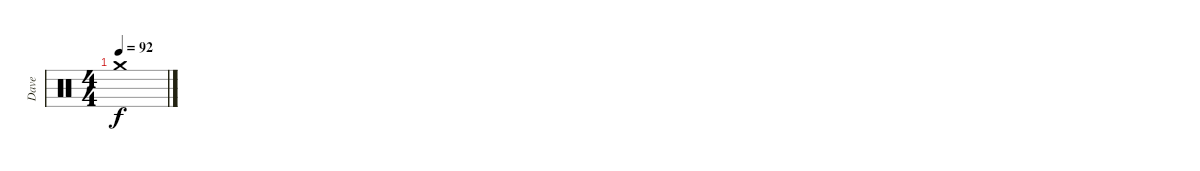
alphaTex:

\track ("Dave" "Dave") {instrument percussion}
\staff {score}
\articulation defaults
\ts (4 4)
\tempo 92
\clef neutral
\ks c "Crash medium (hit)".1{dy f}
